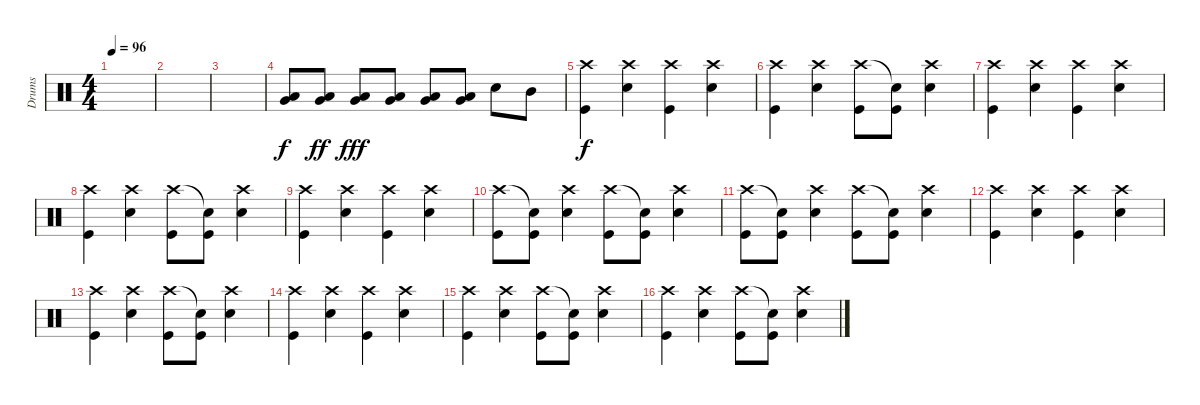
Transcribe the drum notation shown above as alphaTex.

\track ("Drums" "Drums") {instrument percussion}
\staff {score}
\articulation defaults
\ts (4 4)
\tempo 96
\clef neutral
\ks c
|
|
|
("Low Tom (hit)" "Very Low Tom (hit)").8 ("Low Tom (hit)" "Very Low Tom (hit)").8{dy ff} ("Low Tom (hit)" "Very Low Tom (hit)").8{dy fff} ("Low Tom (hit)" "Very Low Tom (hit)").8 ("Low Tom (hit)" "Very Low Tom (hit)").8 ("Low Tom (hit)" "Very Low Tom (hit)").8 "Snare (hit) 2".8 "Mid Tom (hit)".8 |
("Kick (hit)" "Crash high (hit)").4{dy f} ("Snare (hit) 2" "Crash high (hit)").4 ("Kick (hit)" "Crash high (hit)").4 ("Snare (hit) 2" "Crash high (hit)").4 |
("Kick (hit)" "Crash high (hit)").4 ("Snare (hit) 2" "Crash high (hit)").4 ("Kick (hit)" "Crash high (hit)").8 ("Kick (hit)" "Snare (hit)"{t}).8 ("Snare (hit) 2" "Crash high (hit)").4 |
("Kick (hit)" "Crash high (hit)").4 ("Snare (hit) 2" "Crash high (hit)").4 ("Kick (hit)" "Crash high (hit)").4 ("Snare (hit) 2" "Crash high (hit)").4 |
("Kick (hit)" "Crash high (hit)").4 ("Snare (hit) 2" "Crash high (hit)").4 ("Kick (hit)" "Crash high (hit)").8 ("Kick (hit)" "Snare (hit)"{t}).8 ("Snare (hit) 2" "Crash high (hit)").4 |
("Kick (hit)" "Crash high (hit)").4 ("Snare (hit) 2" "Crash high (hit)").4 ("Kick (hit)" "Crash high (hit)").4 ("Snare (hit) 2" "Crash high (hit)").4 |
("Kick (hit)" "Crash high (hit)").8 ("Kick (hit)" "Snare (hit)"{t}).8 ("Snare (hit) 2" "Crash high (hit)").4 ("Kick (hit)" "Crash high (hit)").8 ("Kick (hit)" "Snare (hit)"{t}).8 ("Snare (hit) 2" "Crash high (hit)").4 |
("Kick (hit)" "Crash high (hit)").8 ("Kick (hit)" "Snare (hit)"{t}).8 ("Snare (hit) 2" "Crash high (hit)").4 ("Kick (hit)" "Crash high (hit)").8 ("Kick (hit)" "Snare (hit)"{t}).8 ("Snare (hit) 2" "Crash high (hit)").4 |
("Kick (hit)" "Crash high (hit)").4 ("Snare (hit) 2" "Crash high (hit)").4 ("Kick (hit)" "Crash high (hit)").4 ("Snare (hit) 2" "Crash high (hit)").4 |
("Kick (hit)" "Crash high (hit)").4 ("Snare (hit) 2" "Crash high (hit)").4 ("Kick (hit)" "Crash high (hit)").8 ("Kick (hit)" "Snare (hit)"{t}).8 ("Snare (hit) 2" "Crash high (hit)").4 |
("Kick (hit)" "Crash high (hit)").4 ("Snare (hit) 2" "Crash high (hit)").4 ("Kick (hit)" "Crash high (hit)").4 ("Snare (hit) 2" "Crash high (hit)").4 |
("Kick (hit)" "Crash high (hit)").4 ("Snare (hit) 2" "Crash high (hit)").4 ("Kick (hit)" "Crash high (hit)").8 ("Kick (hit)" "Snare (hit)"{t}).8 ("Snare (hit) 2" "Crash high (hit)").4 |
("Kick (hit)" "Crash high (hit)").4 ("Snare (hit) 2" "Crash high (hit)").4 ("Kick (hit)" "Crash high (hit)").8 ("Kick (hit)" "Snare (hit)"{t}).8 ("Snare (hit) 2" "Crash high (hit)").4
